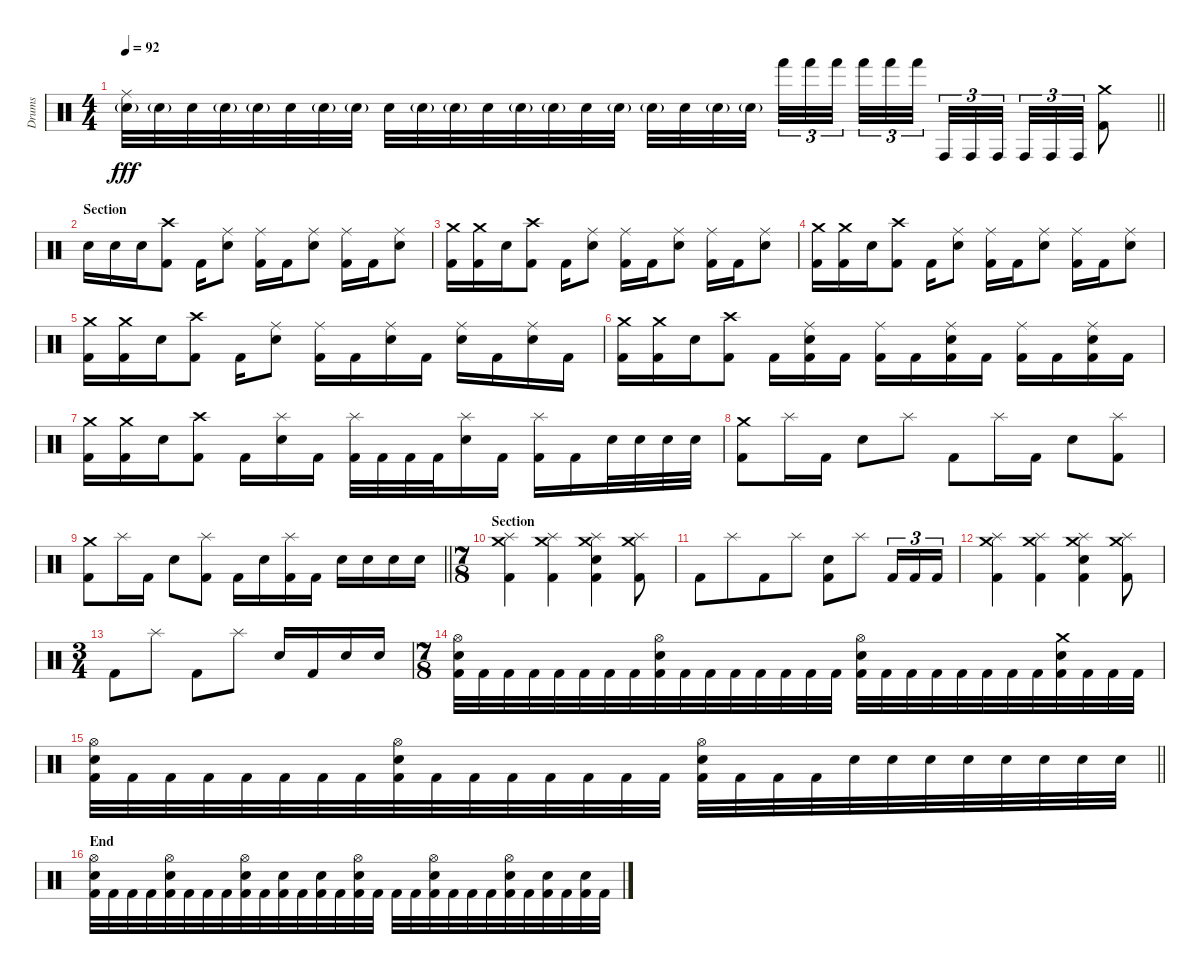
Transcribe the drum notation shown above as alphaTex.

\track ("Drums" "Drums") {instrument percussion}
\staff {score}
\articulation defaults
\ts (4 4)
\tempo 92
\clef neutral
\barLineRight lightlight
\ks c
("Ride (middle)" "Snare (hit) 2"{g}).32{dy fff} "Snare (hit) 2"{g}.32 "Snare (hit) 2".32 "Snare (hit) 2"{g}.32 "Snare (hit) 2"{g}.32 "Snare (hit) 2".32 "Snare (hit) 2"{g}.32 "Snare (hit) 2"{g}.32 "Snare (hit) 2".32 "Snare (hit) 2"{g}.32 "Snare (hit) 2"{g}.32 "Snare (hit) 2".32 "Snare (hit) 2"{g}.32 "Snare (hit) 2"{g}.32 "Snare (hit) 2".32 "Snare (hit) 2"{g}.32 "Snare (hit) 2"{g}.32 "Snare (hit) 2".32 "Snare (hit) 2"{g}.32 "Snare (hit) 2"{g}.32{beam splitsecondary} "Hand (hit)".32{tu (3 2)} "Hand (hit)".32{tu (3 2)} "Hand (hit)".32{tu (3 2) beam splitsecondary} "Hand (hit)".32{tu (3 2)} "Hand (hit)".32{tu (3 2)} "Hand (hit)".32{tu (3 2)} "Conga high (hit)".32{tu (3 2)} "Conga high (hit)".32{tu (3 2)} "Conga high (hit)".32{tu (3 2) beam splitsecondary} "Conga high (hit)".32{tu (3 2)} "Conga high (hit)".32{tu (3 2)} "Conga high (hit)".32{tu (3 2)} ("Crash medium (hit)" "Kick (hit) 2").8 |
\section ("" "Section")
"Snare (hit) 2".16 "Snare (hit) 2".16 "Snare (hit) 2".16 ("Crash high (hit)" "Kick (hit) 2").8 "Kick (hit) 2".16 ("Ride (middle)" "Snare (hit) 2").8 ("Ride (middle)" "Kick (hit) 2").16 "Kick (hit) 2".16 ("Ride (middle)" "Snare (hit) 2").8 ("Ride (middle)" "Kick (hit) 2").16 "Kick (hit) 2".16 ("Ride (middle)" "Snare (hit) 2").8 |
("Crash medium (hit)" "Kick (hit) 2").16 ("Crash medium (hit)" "Kick (hit) 2").16 "Snare (hit) 2".16 ("Crash high (hit)" "Kick (hit) 2").8 "Kick (hit) 2".16 ("Ride (middle)" "Snare (hit) 2").8 ("Ride (middle)" "Kick (hit) 2").16 "Kick (hit) 2".16 ("Ride (middle)" "Snare (hit) 2").8 ("Ride (middle)" "Kick (hit) 2").16 "Kick (hit) 2".16 ("Ride (middle)" "Snare (hit) 2").8 |
("Crash medium (hit)" "Kick (hit) 2").16 ("Crash medium (hit)" "Kick (hit) 2").16 "Snare (hit) 2".16 ("Crash high (hit)" "Kick (hit) 2").8 "Kick (hit) 2".16 ("Ride (middle)" "Snare (hit) 2").8 ("Ride (middle)" "Kick (hit) 2").16 "Kick (hit) 2".16 ("Ride (middle)" "Snare (hit) 2").8 ("Ride (middle)" "Kick (hit) 2").16 "Kick (hit) 2".16 ("Ride (middle)" "Snare (hit) 2").8 |
("Crash medium (hit)" "Kick (hit) 2").16 ("Crash medium (hit)" "Kick (hit) 2").16 "Snare (hit) 2".16 ("Crash high (hit)" "Kick (hit) 2").8 "Kick (hit) 2".16 ("Ride (middle)" "Snare (hit) 2").8 ("Ride (middle)" "Kick (hit) 2").16 "Kick (hit) 2".16 ("Ride (middle)" "Snare (hit) 2").16 "Kick (hit) 2".16 ("Ride (middle)" "Snare (hit) 2").16 "Kick (hit) 2".16 ("Ride (middle)" "Snare (hit) 2").16 "Kick (hit) 2".16 |
("Crash medium (hit)" "Kick (hit) 2").16 ("Crash medium (hit)" "Kick (hit) 2").16 "Snare (hit) 2".16 ("Crash high (hit)" "Kick (hit) 2").8 "Kick (hit) 2".16 ("Ride (middle)" "Snare (hit) 2" "Kick (hit) 2").16 "Kick (hit) 2".16 ("Ride (middle)" "Kick (hit) 2").16 "Kick (hit) 2".16 ("Ride (middle)" "Snare (hit) 2" "Kick (hit) 2").16 "Kick (hit) 2".16 ("Ride (middle)" "Kick (hit) 2").16 "Kick (hit) 2".16 ("Ride (middle)" "Snare (hit) 2" "Kick (hit) 2").16 "Kick (hit) 2".16 |
("Crash medium (hit)" "Kick (hit) 2").16 ("Crash medium (hit)" "Kick (hit) 2").16 "Snare (hit) 2".16 ("Crash high (hit)" "Kick (hit) 2").8 "Kick (hit) 2".16 ("Splash (hit)" "Snare (hit) 2").16 "Kick (hit) 2".16 ("Splash (hit)" "Kick (hit) 2").32 "Kick (hit) 2".32 "Kick (hit) 2".32 "Kick (hit) 2".32 ("Splash (hit)" "Snare (hit) 2").16 "Kick (hit) 2".16 ("Splash (hit)" "Kick (hit) 2").16 "Kick (hit) 2".16 "Snare (hit) 2".32 "Snare (hit) 2".32 "Snare (hit) 2".32 "Snare (hit) 2".32 |
("Crash medium (hit)" "Kick (hit) 2").8 "Splash (hit)".16 "Kick (hit) 2".16 "Snare (hit) 2".8 "Splash (hit)".8 "Kick (hit) 2".8 "Splash (hit)".16 "Kick (hit) 2".16 "Snare (hit) 2".8 ("Splash (hit)" "Kick (hit) 2").8 |
\barLineRight lightlight
("Crash medium (hit)" "Kick (hit) 2").8 "Splash (hit)".16 "Kick (hit) 2".16 "Snare (hit) 2".8 ("Splash (hit)" "Kick (hit) 2").8 "Kick (hit) 2".16 "Snare (hit) 2".16 ("Splash (hit)" "Kick (hit) 2").16 "Kick (hit) 2".16 "Snare (hit) 2".16 "Snare (hit) 2".16 "Snare (hit) 2".16 "Snare (hit) 2".16 |
\ts (7 8)
\section ("" "Section")
("Crash medium (hit)" "Splash (hit)" "Kick (hit) 2").4 ("Crash medium (hit)" "Splash (hit)" "Kick (hit) 2").4 ("Crash medium (hit)" "Splash (hit)" "Snare (hit) 2" "Kick (hit) 2").4 ("Crash medium (hit)" "Splash (hit)" "Kick (hit) 2").8 |
"Kick (hit) 2".8 "Splash (hit)".8 "Kick (hit) 2".8 "Splash (hit)".8 ("Snare (hit) 2" "Kick (hit) 2").8 "Splash (hit)".8 "Kick (hit) 2".16{tu (3 2)} "Kick (hit) 2".16{tu (3 2)} "Kick (hit) 2".16{tu (3 2)} |
("Crash medium (hit)" "Splash (hit)" "Kick (hit) 2").4 ("Crash medium (hit)" "Splash (hit)" "Kick (hit) 2").4 ("Crash medium (hit)" "Splash (hit)" "Snare (hit) 2" "Kick (hit) 2").4 ("Crash medium (hit)" "Splash (hit)" "Kick (hit) 2").8 |
\ts (3 4)
"Kick (hit) 2".8 "Splash (hit)".8 "Kick (hit) 2".8 "Splash (hit)".8 "Snare (hit) 2".16 "Kick (hit) 2".16 "Snare (hit) 2".16 "Snare (hit) 2".16 |
\ts (7 8)
("Hi-Hat (open)" "Snare (hit) 2" "Kick (hit) 2").32 "Kick (hit) 2".32 "Kick (hit) 2".32 "Kick (hit) 2".32 "Kick (hit) 2".32 "Kick (hit) 2".32 "Kick (hit) 2".32 "Kick (hit) 2".32 ("Hi-Hat (open)" "Snare (hit) 2" "Kick (hit) 2").32 "Kick (hit) 2".32 "Kick (hit) 2".32 "Kick (hit) 2".32 "Kick (hit) 2".32 "Kick (hit) 2".32 "Kick (hit) 2".32 "Kick (hit) 2".32 ("Hi-Hat (open)" "Snare (hit) 2" "Kick (hit) 2").32 "Kick (hit) 2".32 "Kick (hit) 2".32 "Kick (hit) 2".32 "Kick (hit) 2".32 "Kick (hit) 2".32 "Kick (hit) 2".32 "Kick (hit) 2".32 ("Crash medium (hit)" "Snare (hit) 2" "Kick (hit) 2").32 "Kick (hit) 2".32 "Kick (hit) 2".32 "Kick (hit) 2".32 |
\barLineRight lightlight
("Hi-Hat (open)" "Snare (hit) 2" "Kick (hit) 2").32 "Kick (hit) 2".32 "Kick (hit) 2".32 "Kick (hit) 2".32 "Kick (hit) 2".32 "Kick (hit) 2".32 "Kick (hit) 2".32 "Kick (hit) 2".32 ("Hi-Hat (open)" "Snare (hit) 2" "Kick (hit) 2").32 "Kick (hit) 2".32 "Kick (hit) 2".32 "Kick (hit) 2".32 "Kick (hit) 2".32 "Kick (hit) 2".32 "Kick (hit) 2".32 "Kick (hit) 2".32 ("Hi-Hat (open)" "Snare (hit) 2" "Kick (hit) 2").32 "Kick (hit) 2".32 "Kick (hit) 2".32 "Kick (hit) 2".32 "Snare (hit) 2".32 "Snare (hit) 2".32 "Snare (hit) 2".32 "Snare (hit) 2".32 "Snare (hit) 2".32 "Snare (hit) 2".32 "Snare (hit) 2".32 "Snare (hit) 2".32 |
\section ("" "End")
("Hi-Hat (open)" "Snare (hit) 2" "Kick (hit) 2").32 "Kick (hit) 2".32 "Kick (hit) 2".32 "Kick (hit) 2".32 ("Hi-Hat (open)" "Snare (hit) 2" "Kick (hit) 2").32 "Kick (hit) 2".32 "Kick (hit) 2".32 "Kick (hit) 2".32 ("Hi-Hat (open)" "Snare (hit) 2" "Kick (hit) 2").32 "Kick (hit) 2".32 ("Snare (hit) 2" "Kick (hit) 2").32 "Kick (hit) 2".32 ("Snare (hit) 2" "Kick (hit) 2").32 "Kick (hit) 2".32 ("Hi-Hat (open)" "Snare (hit) 2" "Kick (hit) 2").32 "Kick (hit) 2".32 "Kick (hit) 2".32 "Kick (hit) 2".32 ("Hi-Hat (open)" "Snare (hit) 2" "Kick (hit) 2").32 "Kick (hit) 2".32 "Kick (hit) 2".32 "Kick (hit) 2".32 ("Hi-Hat (open)" "Snare (hit) 2" "Kick (hit) 2").32 "Kick (hit) 2".32 ("Snare (hit) 2" "Kick (hit) 2").32 "Kick (hit) 2".32 ("Snare (hit) 2" "Kick (hit) 2").32 "Kick (hit) 2".32
